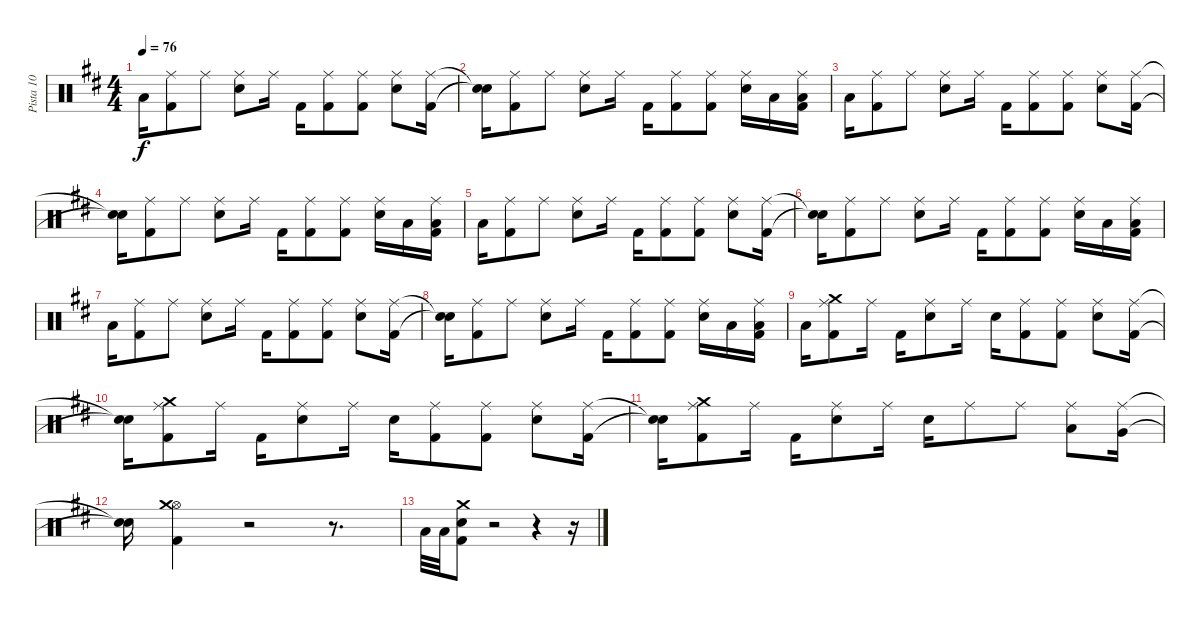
\track ("Pista 10" "Pista 10") {instrument percussion}
\staff {score}
\articulation defaults
\ts (4 4)
\tempo 76
\clef neutral
\ks d "Low Floor Tom (hit)".16{dy f}
("Kick (hit) 2" "Ride (middle)").8 "Ride (middle)".8 ("Snare (hit) 2" "Ride (middle)").8 "Ride (middle)".16 "Kick (hit) 2".16 ("Kick (hit) 2" "Ride (middle)").8 ("Kick (hit) 2" "Ride (middle)").8 ("Snare (hit) 2" "Ride (middle)").8 ("Kick (hit) 2" "Ride (middle)").16 |
("Snare (hit)"{t} "Snare (hit)"{t}).16 ("Kick (hit) 2" "Ride (middle)").8 "Ride (middle)".8 ("Snare (hit) 2" "Ride (middle)").8 "Ride (middle)".16 "Kick (hit) 2".16 ("Kick (hit) 2" "Ride (middle)").8 ("Kick (hit) 2" "Ride (middle)").8 ("Snare (hit) 2" "Ride (middle)").16 "Low Tom (hit)".16 ("Kick (hit) 2" "Ride (middle)" "Low Tom (hit)").16 |
"Low Floor Tom (hit)".16 ("Kick (hit) 2" "Ride (middle)").8 "Ride (middle)".8 ("Snare (hit) 2" "Ride (middle)").8 "Ride (middle)".16 "Kick (hit) 2".16 ("Kick (hit) 2" "Ride (middle)").8 ("Kick (hit) 2" "Ride (middle)").8 ("Snare (hit) 2" "Ride (middle)").8 ("Kick (hit) 2" "Ride (middle)").16 |
("Snare (hit)"{t} "Snare (hit)"{t}).16 ("Kick (hit) 2" "Ride (middle)").8 "Ride (middle)".8 ("Snare (hit) 2" "Ride (middle)").8 "Ride (middle)".16 "Kick (hit) 2".16 ("Kick (hit) 2" "Ride (middle)").8 ("Kick (hit) 2" "Ride (middle)").8 ("Snare (hit) 2" "Ride (middle)").16 "Low Tom (hit)".16 ("Kick (hit) 2" "Ride (middle)" "Low Tom (hit)").16 |
"Low Floor Tom (hit)".16 ("Kick (hit) 2" "Ride (middle)").8 "Ride (middle)".8 ("Snare (hit) 2" "Ride (middle)").8 "Ride (middle)".16 "Kick (hit) 2".16 ("Kick (hit) 2" "Ride (middle)").8 ("Kick (hit) 2" "Ride (middle)").8 ("Snare (hit) 2" "Ride (middle)").8 ("Kick (hit) 2" "Ride (middle)").16 |
("Snare (hit)"{t} "Snare (hit)"{t}).16 ("Kick (hit) 2" "Ride (middle)").8 "Ride (middle)".8 ("Snare (hit) 2" "Ride (middle)").8 "Ride (middle)".16 "Kick (hit) 2".16 ("Kick (hit) 2" "Ride (middle)").8 ("Kick (hit) 2" "Ride (middle)").8 ("Snare (hit) 2" "Ride (middle)").16 "Low Tom (hit)".16 ("Kick (hit) 2" "Ride (middle)" "Low Tom (hit)").16 |
"Low Floor Tom (hit)".16 ("Kick (hit) 2" "Ride (middle)").8 "Ride (middle)".8 ("Snare (hit) 2" "Ride (middle)").8 "Ride (middle)".16 "Kick (hit) 2".16 ("Kick (hit) 2" "Ride (middle)").8 ("Kick (hit) 2" "Ride (middle)").8 ("Snare (hit) 2" "Ride (middle)").8 ("Kick (hit) 2" "Ride (middle)").16 |
("Snare (hit)"{t} "Snare (hit)"{t}).16 ("Kick (hit) 2" "Ride (middle)").8 "Ride (middle)".8 ("Snare (hit) 2" "Ride (middle)").8 "Ride (middle)".16 "Kick (hit) 2".16 ("Kick (hit) 2" "Ride (middle)").8 ("Kick (hit) 2" "Ride (middle)").8 ("Snare (hit) 2" "Ride (middle)").16 "Low Tom (hit)".16 ("Kick (hit) 2" "Ride (middle)" "Low Tom (hit)").16 |
"Low Floor Tom (hit)".16 ("Kick (hit) 2" "Crash medium (hit)" "Ride (middle)").8 "Ride (middle)".16 "Kick (hit) 2".16 ("Snare (hit) 2" "Ride (middle)").8 "Ride (middle)".16 "Snare (hit) 2".16 ("Kick (hit) 2" "Ride (middle)").8 ("Kick (hit) 2" "Ride (middle)").8 ("Snare (hit) 2" "Ride (middle)").8 ("Kick (hit) 2" "Ride (middle)").16 |
("Snare (hit)"{t} "Snare (hit)"{t}).16 ("Kick (hit) 2" "Crash medium (hit)" "Ride (middle)").8 "Ride (middle)".16 "Kick (hit) 2".16 ("Snare (hit) 2" "Ride (middle)").8 "Ride (middle)".16 "Snare (hit) 2".16 ("Kick (hit) 2" "Ride (middle)").8 ("Kick (hit) 2" "Ride (middle)").8 ("Snare (hit) 2" "Ride (middle)").8 ("Kick (hit) 2" "Ride (middle)").16 |
("Snare (hit)"{t} "Snare (hit)"{t}).16 ("Kick (hit) 2" "Crash medium (hit)" "Ride (middle)").8 "Ride (middle)".16 "Kick (hit) 2".16 ("Snare (hit) 2" "Ride (middle)").8 "Ride (middle)".16 "Snare (hit) 2".16 "Ride (middle)".8 "Ride (middle)".8 ("Ride (middle)" "Low Tom (hit)").8 ("Very Low Tom (hit)" "Ride (middle)").16 |
("Snare (hit)"{t} "Snare (hit)"{t}).16 ("Kick (hit) 2" "Hi-Hat (open)" "Crash medium (hit)").4 r.2 r.8{d} |
"Low Tom (hit)".32 "Low Tom (hit)".32 ("Kick (hit) 2" "Snare (hit) 2" "Crash medium (hit)").8 r.2 r.4 r.16
